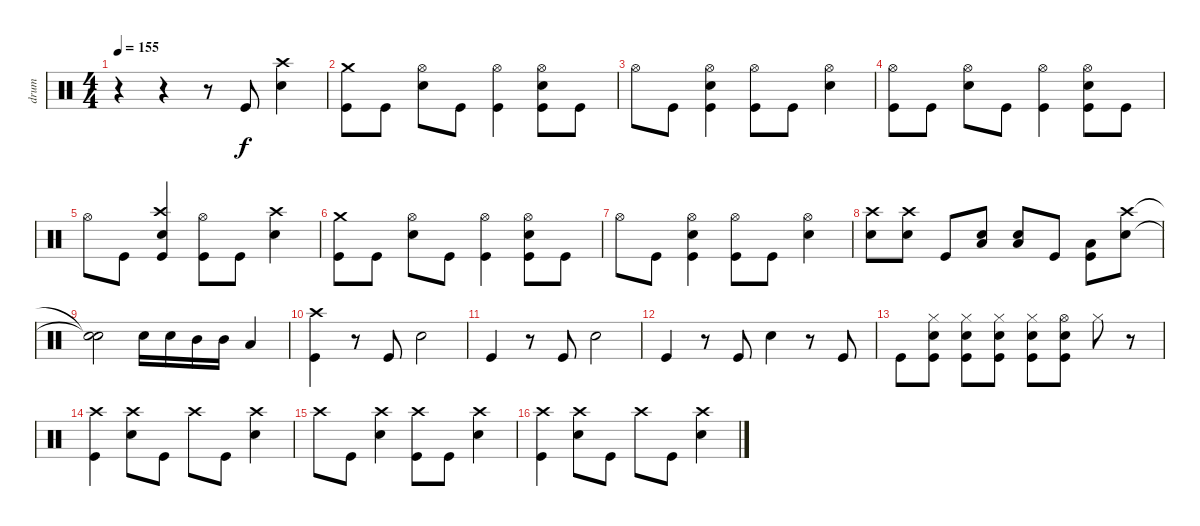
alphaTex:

\track ("drum" "drum") {instrument percussion}
\staff {score}
\articulation defaults
\ts (4 4)
\tempo 155
\clef neutral
\ks c
r.4{dy f} r.4 r.8 "Kick (hit)".8 ("Crash high (hit)" "Snare (hit) 2").4 |
("Crash medium (hit)" "Kick (hit)").8 "Kick (hit)".8 ("Hi-Hat (open)" "Snare (hit) 2").8 "Kick (hit)".8 ("Hi-Hat (open)" "Kick (hit)").4 ("Hi-Hat (open)" "Snare (hit) 2" "Kick (hit)").8 "Kick (hit)".8 |
"Hi-Hat (open)".8 "Kick (hit)".8 ("Hi-Hat (open)" "Snare (hit) 2" "Kick (hit)").4 ("Hi-Hat (open)" "Kick (hit)").8 "Kick (hit)".8 ("Hi-Hat (open)" "Snare (hit) 2").4 |
("Hi-Hat (open)" "Kick (hit)").8 "Kick (hit)".8 ("Hi-Hat (open)" "Snare (hit) 2").8 "Kick (hit)".8 ("Hi-Hat (open)" "Kick (hit)").4 ("Hi-Hat (open)" "Snare (hit) 2" "Kick (hit)").8 "Kick (hit)".8 |
"Hi-Hat (open)".8 "Kick (hit)".8 ("Crash high (hit)" "Snare (hit) 2" "Kick (hit)").4 ("Hi-Hat (open)" "Kick (hit)").8 "Kick (hit)".8 ("Crash high (hit)" "Snare (hit) 2").4 |
("Crash medium (hit)" "Kick (hit)").8 "Kick (hit)".8 ("Hi-Hat (open)" "Snare (hit) 2").8 "Kick (hit)".8 ("Hi-Hat (open)" "Kick (hit)").4 ("Hi-Hat (open)" "Snare (hit) 2" "Kick (hit)").8 "Kick (hit)".8 |
"Hi-Hat (open)".8 "Kick (hit)".8 ("Hi-Hat (open)" "Snare (hit) 2" "Kick (hit)").4 ("Hi-Hat (open)" "Kick (hit)").8 "Kick (hit)".8 ("Hi-Hat (open)" "Snare (hit) 2").4 |
("Crash high (hit)" "Snare (hit) 2").8 ("Crash high (hit)" "Snare (hit) 2").8 "Kick (hit)".8 ("Snare (hit) 2" "Low Tom (hit)").8 ("Snare (hit) 2" "Low Tom (hit)").8 "Kick (hit)".8 ("Low Tom (hit)" "Kick (hit)").8 ("Crash high (hit)" "Snare (hit) 2").8 |
("Snare (hit)"{t} "Snare (hit)"{t}).2 "Snare (hit) 2".16 "Snare (hit) 2".16 "Mid Tom (hit)".16 "Mid Tom (hit)".16 "Low Tom (hit)".4 |
("Crash high (hit)" "Kick (hit)").4 r.8 "Kick (hit)".8 "Snare (hit) 2".2 |
"Kick (hit)".4 r.8 "Kick (hit)".8 "Snare (hit) 2".2 |
"Kick (hit)".4 r.8 "Kick (hit)".8 "Snare (hit) 2".4 r.8 "Kick (hit)".8 |
"Kick (hit)".8 ("Hi-Hat (closed)" "Snare (hit) 2" "Kick (hit)").8 ("Hi-Hat (closed)" "Snare (hit) 2" "Kick (hit)").8 ("Hi-Hat (closed)" "Snare (hit) 2" "Kick (hit)").8 ("Hi-Hat (closed)" "Snare (hit) 2" "Kick (hit)").8 ("Hi-Hat (open)" "Snare (hit) 2" "Kick (hit)").8 "Hi-Hat (closed)".8{volume 0} r.8 |
("Crash high (hit)" "Kick (hit)").4{volume 15} ("Crash high (hit)" "Snare (hit) 2").8 "Kick (hit)".8 "Crash high (hit)".8 "Kick (hit)".8 ("Crash high (hit)" "Snare (hit) 2").4 |
"Crash high (hit)".8 "Kick (hit)".8 ("Crash high (hit)" "Snare (hit) 2").4 ("Crash high (hit)" "Kick (hit)").8 "Kick (hit)".8 ("Crash high (hit)" "Snare (hit) 2").4 |
("Crash high (hit)" "Kick (hit)").4 ("Crash high (hit)" "Snare (hit) 2").8 "Kick (hit)".8 "Crash high (hit)".8 "Kick (hit)".8 ("Crash high (hit)" "Snare (hit) 2").4
